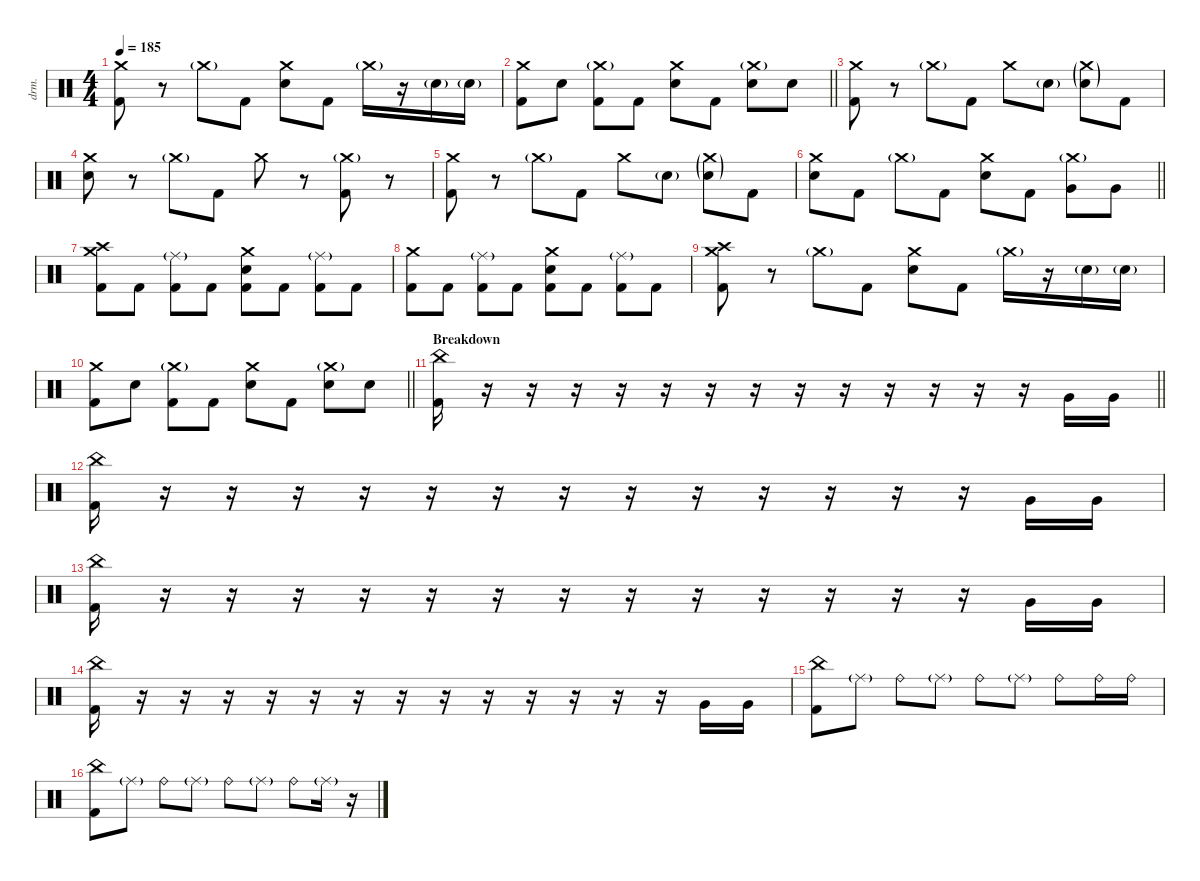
\defaultSystemsLayout 4
\hideDynamics
\bracketExtendMode nobrackets
\track ("Drums - Šimon" "drm.") {instrument percussion}
\staff {score}
\articulation defaults
\ts (4 4)
\tempo 185
\clef neutral
\ks c
("Kick (hit) 2" "Crash medium (hit)").8{dy ff beam Down} r.8{beam Down} "Crash medium (hit)"{g}.8{beam Down} "Kick (hit) 2".8{beam Down} ("Snare (hit) 2" "Crash medium (hit)").8{beam Down} "Kick (hit) 2".8{beam Down} "Crash medium (hit)"{g}.16{beam Down} r.16{beam Down} "Snare (hit) 2"{g}.16{beam Down} "Snare (hit) 2"{g}.16{beam Down} |
\barLineRight lightlight
("Crash medium (hit)" "Kick (hit) 2").8{beam Down} "Snare (hit) 2".8{beam Down} ("Kick (hit) 2" "Crash medium (hit)"{g}).8{beam Down} "Kick (hit) 2".8{beam Down} ("Snare (hit) 2" "Crash medium (hit)").8{beam Down} "Kick (hit) 2".8{beam Down} ("Crash medium (hit)"{g} "Snare (hit) 2").8{beam Down} "Snare (hit) 2".8{beam Down} |
("Crash medium (hit)" "Kick (hit) 2").8{beam Down} r.8{beam Down} "Crash medium (hit)"{g}.8{dy mf beam Down} "Kick (hit) 2".8{dy ff beam Down} "Crash medium (hit)".8{beam Down} "Snare (hit) 2"{g}.8{beam Down} ("Snare (hit) 2"{g} "Crash medium (hit)"{g}).8{beam Down} "Kick (hit) 2".8{beam Down} |
("Crash medium (hit)" "Snare (hit) 2").8{beam Down} r.8{beam Down} "Crash medium (hit)"{g}.8{dy mf beam Down} "Kick (hit) 2".8{dy ff beam Down} "Crash medium (hit)".8{beam Down} r.8{beam Down} ("Kick (hit) 2" "Crash medium (hit)"{g}).8{beam Down} r.8{beam Down} |
("Crash medium (hit)" "Kick (hit) 2").8{beam Down} r.8{beam Down} "Crash medium (hit)"{g}.8{dy mf beam Down} "Kick (hit) 2".8{dy ff beam Down} "Crash medium (hit)".8{beam Down} "Snare (hit) 2"{g}.8{beam Down} ("Snare (hit) 2"{g} "Crash medium (hit)"{g}).8{beam Down} "Kick (hit) 2".8{beam Down} |
\barLineRight lightlight
("Crash medium (hit)" "Snare (hit) 2").8{beam Down} "Kick (hit) 2".8{beam Down} "Crash medium (hit)"{g}.8{dy mf beam Down} "Kick (hit) 2".8{dy ff beam Down} ("Crash medium (hit)" "Snare (hit) 2").8{beam Down} "Kick (hit) 2".8{beam Down} ("Very Low Tom (hit)" "Crash medium (hit)"{g}).8{beam Down} "Very Low Tom (hit)".8{beam Down} |
("Crash medium (hit)" "Kick (hit) 2" "Crash high (hit)").8{beam Down} "Kick (hit) 2".8{beam Down} ("Kick (hit) 2" "Ride (middle)"{g}).8{beam Down} "Kick (hit) 2".8{beam Down} ("Snare (hit) 2" "Crash medium (hit)" "Kick (hit) 2").8{beam Down} "Kick (hit) 2".8{beam Down} ("Kick (hit) 2" "Ride (middle)"{g}).8{beam Down} "Kick (hit) 2".8{beam Down} |
("Crash medium (hit)" "Kick (hit) 2").8{beam Down} "Kick (hit) 2".8{beam Down} ("Kick (hit) 2" "Ride (middle)"{g}).8{beam Down} "Kick (hit) 2".8{beam Down} ("Snare (hit) 2" "Crash medium (hit)" "Kick (hit) 2").8{beam Down} "Kick (hit) 2".8{beam Down} ("Kick (hit) 2" "Ride (middle)"{g}).8{beam Down} "Kick (hit) 2".8{beam Down} |
("Kick (hit) 2" "Crash medium (hit)" "Crash high (hit)").8{beam Down} r.8{beam Down} "Crash medium (hit)"{g}.8{beam Down} "Kick (hit) 2".8{beam Down} ("Snare (hit) 2" "Crash medium (hit)").8{beam Down} "Kick (hit) 2".8{beam Down} "Crash medium (hit)"{g}.16{beam Down} r.16{beam Down} "Snare (hit) 2"{g}.16{beam Down} "Snare (hit) 2"{g}.16{beam Down} |
\barLineRight lightlight
("Crash medium (hit)" "Kick (hit) 2").8{beam Down} "Snare (hit) 2".8{beam Down} ("Kick (hit) 2" "Crash medium (hit)"{g}).8{beam Down} "Kick (hit) 2".8{beam Down} ("Snare (hit) 2" "Crash medium (hit)").8{beam Down} "Kick (hit) 2".8{beam Down} ("Crash medium (hit)"{g} "Snare (hit) 2").8{beam Down} "Snare (hit) 2".8{beam Down} |
\section ("" "Breakdown")
\barLineRight lightlight
("Kick (hit) 2" "China (hit)").16{beam Down} r.16{beam Down} r.16{beam Down} r.16{beam Down} r.16{beam Down} r.16{beam Down} r.16{beam Down} r.16{beam Down} r.16{beam Down} r.16{beam Down} r.16{beam Down} r.16{beam Down} r.16{beam Down} r.16{beam Down} "Very Low Tom (hit)".16{beam Up} "Very Low Tom (hit)".16{beam Up} |
("Kick (hit) 2" "China (hit)").16{beam Down} r.16{beam Down} r.16{beam Down} r.16{beam Down} r.16{beam Down} r.16{beam Down} r.16{beam Down} r.16{beam Down} r.16{beam Down} r.16{beam Down} r.16{beam Down} r.16{beam Down} r.16{beam Down} r.16{beam Down} "Very Low Tom (hit)".16{beam Up} "Very Low Tom (hit)".16{beam Up} |
("Kick (hit) 2" "China (hit)").16{beam Down} r.16{beam Down} r.16{beam Down} r.16{beam Down} r.16{beam Down} r.16{beam Down} r.16{beam Down} r.16{beam Down} r.16{beam Down} r.16{beam Down} r.16{beam Down} r.16{beam Down} r.16{beam Down} r.16{beam Down} "Very Low Tom (hit)".16{beam Up} "Very Low Tom (hit)".16{beam Up} |
("Kick (hit) 2" "China (hit)").16{beam Down} r.16{beam Down} r.16{beam Down} r.16{beam Down} r.16{beam Down} r.16{beam Down} r.16{beam Down} r.16{beam Down} r.16{beam Down} r.16{beam Down} r.16{beam Down} r.16{beam Down} r.16{beam Down} r.16{beam Down} "Very Low Tom (hit)".16{beam Up} "Very Low Tom (hit)".16{beam Up} |
("Kick (hit) 2" "China (hit)").8{beam Down} "Ride (middle)"{g}.8{beam Down} "Ride (bell)".8{beam Down} "Ride (middle)"{g}.8{beam Down} "Ride (bell)".8{beam Down} "Ride (middle)"{g}.8{beam Down} "Ride (bell)".8{beam Down} "Ride (bell)".16{beam Down} "Ride (bell)".16{beam Down} |
("Kick (hit) 2" "China (hit)").8{beam Down} "Ride (middle)"{g}.8{beam Down} "Ride (bell)".8{beam Down} "Ride (middle)"{g}.8{beam Down} "Ride (bell)".8{beam Down} "Ride (middle)"{g}.8{beam Down} "Ride (bell)".8{beam Down} "Ride (middle)"{g}.16{beam Down} r.16{beam Down}
